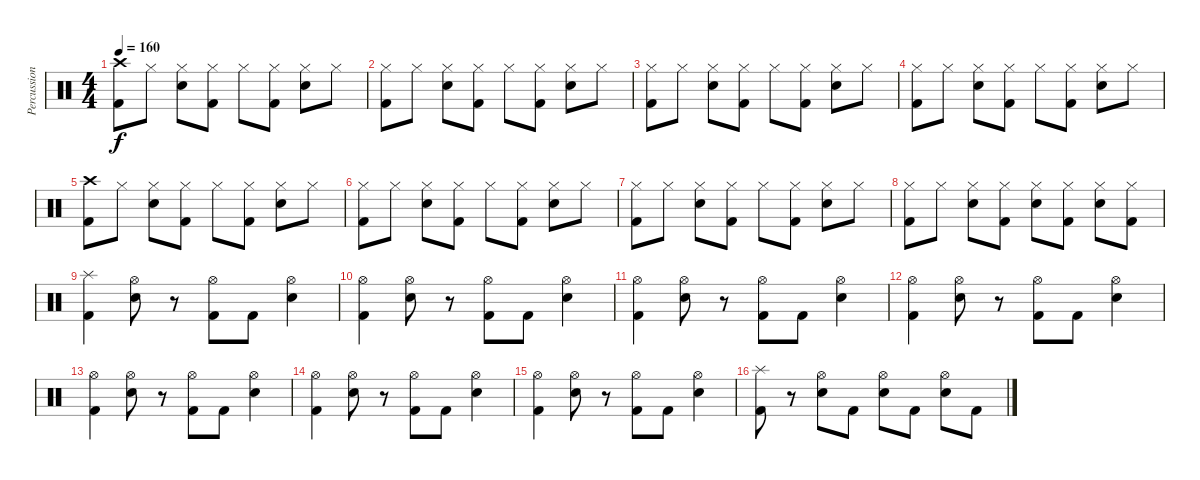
\track ("Percussion" "Percussion") {instrument percussion}
\staff {score}
\articulation defaults
\ts (4 4)
\tempo 160
\clef neutral
\ks c
("Crash high (hit)" "Kick (hit) 2").8{dy f} "Hi-Hat (closed)".8 ("Hi-Hat (closed)" "Snare (hit) 2").8 ("Hi-Hat (closed)" "Kick (hit) 2").8 "Hi-Hat (closed)".8 ("Hi-Hat (closed)" "Kick (hit) 2").8 ("Hi-Hat (closed)" "Snare (hit) 2").8 "Hi-Hat (closed)".8 |
("Hi-Hat (closed)" "Kick (hit) 2").8 "Hi-Hat (closed)".8 ("Hi-Hat (closed)" "Snare (hit) 2").8 ("Hi-Hat (closed)" "Kick (hit) 2").8 "Hi-Hat (closed)".8 ("Hi-Hat (closed)" "Kick (hit) 2").8 ("Hi-Hat (closed)" "Snare (hit) 2").8 "Hi-Hat (closed)".8 |
("Hi-Hat (closed)" "Kick (hit) 2").8 "Hi-Hat (closed)".8 ("Hi-Hat (closed)" "Snare (hit) 2").8 ("Hi-Hat (closed)" "Kick (hit) 2").8 "Hi-Hat (closed)".8 ("Hi-Hat (closed)" "Kick (hit) 2").8 ("Hi-Hat (closed)" "Snare (hit) 2").8 "Hi-Hat (closed)".8 |
("Hi-Hat (closed)" "Kick (hit) 2").8 "Hi-Hat (closed)".8 ("Hi-Hat (closed)" "Snare (hit) 2").8 ("Hi-Hat (closed)" "Kick (hit) 2").8 "Hi-Hat (closed)".8 ("Hi-Hat (closed)" "Kick (hit) 2").8 ("Hi-Hat (closed)" "Snare (hit) 2").8 "Hi-Hat (closed)".8 |
("Crash high (hit)" "Kick (hit) 2").8 "Hi-Hat (closed)".8 ("Hi-Hat (closed)" "Snare (hit) 2").8 ("Hi-Hat (closed)" "Kick (hit) 2").8 "Hi-Hat (closed)".8 ("Hi-Hat (closed)" "Kick (hit) 2").8 ("Hi-Hat (closed)" "Snare (hit) 2").8 "Hi-Hat (closed)".8 |
("Hi-Hat (closed)" "Kick (hit) 2").8 "Hi-Hat (closed)".8 ("Hi-Hat (closed)" "Snare (hit) 2").8 ("Hi-Hat (closed)" "Kick (hit) 2").8 "Hi-Hat (closed)".8 ("Hi-Hat (closed)" "Kick (hit) 2").8 ("Hi-Hat (closed)" "Snare (hit) 2").8 "Hi-Hat (closed)".8 |
("Hi-Hat (closed)" "Kick (hit) 2").8 "Hi-Hat (closed)".8 ("Hi-Hat (closed)" "Snare (hit) 2").8 ("Hi-Hat (closed)" "Kick (hit) 2").8 "Hi-Hat (closed)".8 ("Hi-Hat (closed)" "Kick (hit) 2").8 ("Hi-Hat (closed)" "Snare (hit) 2").8 "Hi-Hat (closed)".8 |
("Hi-Hat (closed)" "Kick (hit) 2").8 "Hi-Hat (closed)".8 ("Hi-Hat (closed)" "Snare (hit) 2").8 ("Hi-Hat (closed)" "Kick (hit) 2").8 ("Hi-Hat (closed)" "Snare (hit) 2").8 ("Hi-Hat (closed)" "Kick (hit) 2").8 ("Hi-Hat (closed)" "Snare (hit) 2").8 ("Hi-Hat (closed)" "Kick (hit) 2").8 |
("Splash (hit)" "Kick (hit) 2").4 ("Hi-Hat (open)" "Snare (hit) 2").8 r.8 ("Hi-Hat (open)" "Kick (hit) 2").8 "Kick (hit) 2".8 ("Hi-Hat (open)" "Snare (hit) 2").4 |
("Hi-Hat (open)" "Kick (hit) 2").4 ("Hi-Hat (open)" "Snare (hit) 2").8 r.8 ("Hi-Hat (open)" "Kick (hit) 2").8 "Kick (hit) 2".8 ("Hi-Hat (open)" "Snare (hit) 2").4 |
("Hi-Hat (open)" "Kick (hit) 2").4 ("Hi-Hat (open)" "Snare (hit) 2").8 r.8 ("Hi-Hat (open)" "Kick (hit) 2").8 "Kick (hit) 2".8 ("Hi-Hat (open)" "Snare (hit) 2").4 |
("Hi-Hat (open)" "Kick (hit) 2").4 ("Hi-Hat (open)" "Snare (hit) 2").8 r.8 ("Hi-Hat (open)" "Kick (hit) 2").8 "Kick (hit) 2".8 ("Hi-Hat (open)" "Snare (hit) 2").4 |
("Hi-Hat (open)" "Kick (hit) 2").4 ("Hi-Hat (open)" "Snare (hit) 2").8 r.8 ("Hi-Hat (open)" "Kick (hit) 2").8 "Kick (hit) 2".8 ("Hi-Hat (open)" "Snare (hit) 2").4 |
("Hi-Hat (open)" "Kick (hit) 2").4 ("Hi-Hat (open)" "Snare (hit) 2").8 r.8 ("Hi-Hat (open)" "Kick (hit) 2").8 "Kick (hit) 2".8 ("Hi-Hat (open)" "Snare (hit) 2").4 |
("Hi-Hat (open)" "Kick (hit) 2").4 ("Hi-Hat (open)" "Snare (hit) 2").8 r.8 ("Hi-Hat (open)" "Kick (hit) 2").8 "Kick (hit) 2".8 ("Hi-Hat (open)" "Snare (hit) 2").4 |
("Splash (hit)" "Kick (hit) 2").8 r.8 ("Hi-Hat (open)" "Snare (hit) 2").8 "Kick (hit) 2".8 ("Hi-Hat (open)" "Snare (hit) 2").8 "Kick (hit) 2".8 ("Hi-Hat (open)" "Snare (hit) 2").8 "Kick (hit) 2".8
